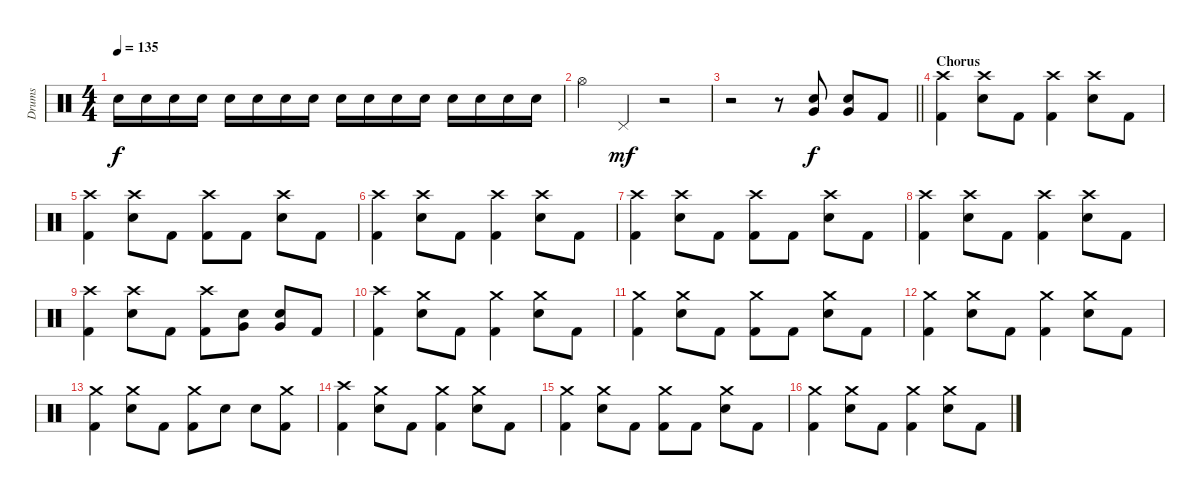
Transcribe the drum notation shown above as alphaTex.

\track ("Drums" "Drums") {instrument percussion}
\staff {score}
\articulation defaults
\ts (4 4)
\tempo 135
\clef neutral
\ks c "Electric Snare (hit)".16{dy f} "Electric Snare (hit)".16 "Electric Snare (hit)".16 "Electric Snare (hit)".16 "Electric Snare (hit)".16 "Electric Snare (hit)".16 "Electric Snare (hit)".16 "Electric Snare (hit)".16 "Electric Snare (hit)".16 "Electric Snare (hit)".16 "Electric Snare (hit)".16 "Electric Snare (hit)".16 "Electric Snare (hit)".16 "Electric Snare (hit)".16 "Electric Snare (hit)".16 "Electric Snare (hit)".16
|
"Hi-Hat (open)".4 "Pedal Hi-Hat (hit)".4{dy mf} r.2 |
\barLineRight lightlight
r.2 r.8 ("Very Low Tom (hit)" "Electric Snare (hit)").8{dy f} ("Very Low Tom (hit)" "Electric Snare (hit)").8 "Kick (hit) 2".8 |
\section ("" "Chorus")
("Crash high (hit)" "Kick (hit) 2").4 ("Crash high (hit)" "Electric Snare (hit)").8 "Kick (hit) 2".8 ("Crash high (hit)" "Kick (hit) 2").4 ("Crash high (hit)" "Electric Snare (hit)").8 "Kick (hit) 2".8 |
("Crash high (hit)" "Kick (hit) 2").4 ("Crash high (hit)" "Electric Snare (hit)").8 "Kick (hit) 2".8 ("Crash high (hit)" "Kick (hit) 2").8 "Kick (hit) 2".8 ("Crash high (hit)" "Electric Snare (hit)").8 "Kick (hit) 2".8 |
("Crash high (hit)" "Kick (hit) 2").4 ("Crash high (hit)" "Electric Snare (hit)").8 "Kick (hit) 2".8 ("Crash high (hit)" "Kick (hit) 2").4 ("Crash high (hit)" "Electric Snare (hit)").8 "Kick (hit) 2".8 |
("Crash high (hit)" "Kick (hit) 2").4 ("Crash high (hit)" "Electric Snare (hit)").8 "Kick (hit) 2".8 ("Crash high (hit)" "Kick (hit) 2").8 "Kick (hit) 2".8 ("Crash high (hit)" "Electric Snare (hit)").8 "Kick (hit) 2".8 |
("Crash high (hit)" "Kick (hit) 2").4 ("Crash high (hit)" "Electric Snare (hit)").8 "Kick (hit) 2".8 ("Crash high (hit)" "Kick (hit) 2").4 ("Crash high (hit)" "Electric Snare (hit)").8 "Kick (hit) 2".8 |
("Crash high (hit)" "Kick (hit) 2").4 ("Crash high (hit)" "Electric Snare (hit)").8 "Kick (hit) 2".8 ("Crash high (hit)" "Kick (hit) 2").8 ("Very Low Tom (hit)" "Electric Snare (hit)").8 ("Very Low Tom (hit)" "Electric Snare (hit)").8 "Kick (hit) 2".8 |
("Crash high (hit)" "Kick (hit) 2").4 ("Crash medium (hit)" "Electric Snare (hit)").8 "Kick (hit) 2".8 ("Crash medium (hit)" "Kick (hit) 2").4 ("Crash medium (hit)" "Electric Snare (hit)").8 "Kick (hit) 2".8 |
("Crash medium (hit)" "Kick (hit) 2").4 ("Crash medium (hit)" "Electric Snare (hit)").8 "Kick (hit) 2".8 ("Crash medium (hit)" "Kick (hit) 2").8 "Kick (hit) 2".8 ("Crash medium (hit)" "Electric Snare (hit)").8 "Kick (hit) 2".8 |
("Crash medium (hit)" "Kick (hit) 2").4 ("Crash medium (hit)" "Electric Snare (hit)").8 "Kick (hit) 2".8 ("Crash medium (hit)" "Kick (hit) 2").4 ("Crash medium (hit)" "Electric Snare (hit)").8 "Kick (hit) 2".8 |
("Crash medium (hit)" "Kick (hit) 2").4 ("Crash medium (hit)" "Electric Snare (hit)").8 "Kick (hit) 2".8 ("Crash medium (hit)" "Kick (hit) 2").8 "Electric Snare (hit)".8 "Electric Snare (hit)".8 ("Crash medium (hit)" "Kick (hit) 2").8 |
("Crash high (hit)" "Kick (hit) 2").4 ("Crash medium (hit)" "Electric Snare (hit)").8 "Kick (hit) 2".8 ("Crash medium (hit)" "Kick (hit) 2").4 ("Crash medium (hit)" "Electric Snare (hit)").8 "Kick (hit) 2".8 |
("Crash medium (hit)" "Kick (hit) 2").4 ("Crash medium (hit)" "Electric Snare (hit)").8 "Kick (hit) 2".8 ("Crash medium (hit)" "Kick (hit) 2").8 "Kick (hit) 2".8 ("Crash medium (hit)" "Electric Snare (hit)").8 "Kick (hit) 2".8 |
("Crash medium (hit)" "Kick (hit) 2").4 ("Crash medium (hit)" "Electric Snare (hit)").8 "Kick (hit) 2".8 ("Crash medium (hit)" "Kick (hit) 2").4 ("Crash medium (hit)" "Electric Snare (hit)").8 "Kick (hit) 2".8
